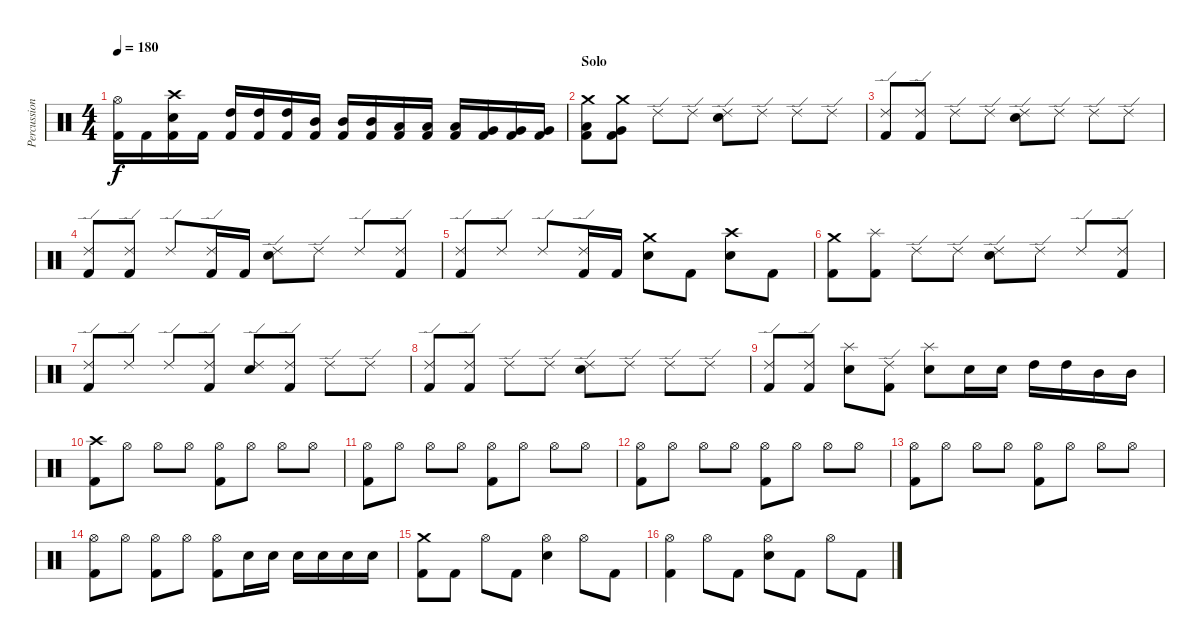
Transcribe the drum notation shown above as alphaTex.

\track ("Percussion" "Percussion") {instrument percussion}
\staff {score}
\articulation defaults
\ts (4 4)
\tempo 180
\clef neutral
\ks c
("Kick (hit) 2" "Hi-Hat (open)").16{dy f} "Kick (hit) 2".16 ("Kick (hit) 2" "Electric Snare (hit)" "Crash high (hit)").16 "Kick (hit) 2".16 ("Kick (hit) 2" "High Tom (hit)").16 ("Kick (hit) 2" "High Tom (hit)").16 ("Kick (hit) 2" "High Tom (hit)").16 ("Kick (hit) 2" "Mid Tom (hit)").16 ("Kick (hit) 2" "Mid Tom (hit)").16 ("Kick (hit) 2" "Mid Tom (hit)").16 ("Kick (hit) 2" "Low Tom (hit)").16 ("Kick (hit) 2" "Low Tom (hit)").16 ("Kick (hit) 2" "Low Tom (hit)").16 ("Kick (hit) 2" "Very Low Tom (hit)").16 ("Kick (hit) 2" "Very Low Tom (hit)").16 ("Kick (hit) 2" "Very Low Tom (hit)").16 |
\section ("" "Solo")
("Kick (hit) 2" "Low Tom (hit)" "Crash medium (hit)").8 ("Kick (hit) 2" "Very Low Tom (hit)" "Crash medium (hit)").8 "Ride (edge) 2".8 "Ride (edge) 2".8 ("Electric Snare (hit)" "Ride (edge) 2").8 "Ride (edge) 2".8 "Ride (edge) 2".8 "Ride (edge) 2".8 |
("Kick (hit) 2" "Ride (edge) 2").8 ("Kick (hit) 2" "Ride (edge) 2").8 "Ride (edge) 2".8 "Ride (edge) 2".8 ("Electric Snare (hit)" "Ride (edge) 2").8 "Ride (edge) 2".8 "Ride (edge) 2".8 "Ride (edge) 2".8 |
("Kick (hit) 2" "Ride (edge) 2").8 ("Kick (hit) 2" "Ride (edge) 2").8 "Ride (edge) 2".8 ("Kick (hit) 2" "Ride (edge) 2").16 "Kick (hit) 2".16 ("Electric Snare (hit)" "Ride (edge) 2").8 "Ride (edge) 2".8 "Ride (edge) 2".8 ("Kick (hit) 2" "Ride (edge) 2").8 |
("Kick (hit) 2" "Ride (edge) 2").8 "Ride (edge) 2".8 "Ride (edge) 2".8 ("Kick (hit) 2" "Ride (edge) 2").16 "Kick (hit) 2".16 ("Electric Snare (hit)" "Crash medium (hit)").8 "Kick (hit) 2".8 ("Electric Snare (hit)" "Crash high (hit)").8 "Kick (hit) 2".8 |
("Kick (hit) 2" "Crash medium (hit)").8 ("Kick (hit) 2" "Splash (hit)").8 "Ride (edge) 2".8 "Ride (edge) 2".8 ("Electric Snare (hit)" "Ride (edge) 2").8 "Ride (edge) 2".8 "Ride (edge) 2".8 ("Kick (hit) 2" "Ride (edge) 2").8 |
("Kick (hit) 2" "Ride (edge) 2").8 "Ride (edge) 2".8 "Ride (edge) 2".8 ("Kick (hit) 2" "Ride (edge) 2").8 ("Electric Snare (hit)" "Ride (edge) 2").8 ("Kick (hit) 2" "Ride (edge) 2").8 "Ride (edge) 2".8 "Ride (edge) 2".8 |
("Kick (hit) 2" "Ride (edge) 2").8 ("Kick (hit) 2" "Ride (edge) 2").8 "Ride (edge) 2".8 "Ride (edge) 2".8 ("Electric Snare (hit)" "Ride (edge) 2").8 "Ride (edge) 2".8 "Ride (edge) 2".8 "Ride (edge) 2".8 |
("Kick (hit) 2" "Ride (edge) 2").8 ("Kick (hit) 2" "Ride (edge) 2").8 ("Electric Snare (hit)" "Splash (hit)").8 ("Kick (hit) 2" "Ride (edge) 2").8 ("Electric Snare (hit)" "Splash (hit)").8 "Electric Snare (hit)".16 "Electric Snare (hit)".16 "High Tom (hit)".16 "High Tom (hit)".16 "Mid Tom (hit)".16 "Mid Tom (hit)".16 |
("Kick (hit) 2" "Crash high (hit)").8 "Hi-Hat (open)".8 "Hi-Hat (open)".8 "Hi-Hat (open)".8 ("Kick (hit) 2" "Hi-Hat (open)").8 "Hi-Hat (open)".8 "Hi-Hat (open)".8 "Hi-Hat (open)".8 |
("Kick (hit) 2" "Hi-Hat (open)").8 "Hi-Hat (open)".8 "Hi-Hat (open)".8 "Hi-Hat (open)".8 ("Kick (hit) 2" "Hi-Hat (open)").8 "Hi-Hat (open)".8 "Hi-Hat (open)".8 "Hi-Hat (open)".8 |
("Kick (hit) 2" "Hi-Hat (open)").8 "Hi-Hat (open)".8 "Hi-Hat (open)".8 "Hi-Hat (open)".8 ("Kick (hit) 2" "Hi-Hat (open)").8 "Hi-Hat (open)".8 "Hi-Hat (open)".8 "Hi-Hat (open)".8 |
("Kick (hit) 2" "Hi-Hat (open)").8 "Hi-Hat (open)".8 "Hi-Hat (open)".8 "Hi-Hat (open)".8 ("Kick (hit) 2" "Hi-Hat (open)").8 "Hi-Hat (open)".8 "Hi-Hat (open)".8 "Hi-Hat (open)".8 |
("Kick (hit) 2" "Hi-Hat (open)").8 "Hi-Hat (open)".8 ("Kick (hit) 2" "Hi-Hat (open)").8 "Hi-Hat (open)".8 ("Kick (hit) 2" "Hi-Hat (open)").8 "Electric Snare (hit)".16 "Electric Snare (hit)".16 "Electric Snare (hit)".16 "Electric Snare (hit)".16 "Electric Snare (hit)".16 "Electric Snare (hit)".16 |
("Kick (hit) 2" "Crash medium (hit)").8 "Kick (hit) 2".8 "Hi-Hat (open)".8 "Kick (hit) 2".8 ("Electric Snare (hit)" "Hi-Hat (open)").4 "Hi-Hat (open)".8 "Kick (hit) 2".8 |
("Kick (hit) 2" "Hi-Hat (open)").4 "Hi-Hat (open)".8 "Kick (hit) 2".8 ("Electric Snare (hit)" "Hi-Hat (open)").8 "Kick (hit) 2".8 "Hi-Hat (open)".8 "Kick (hit) 2".8
